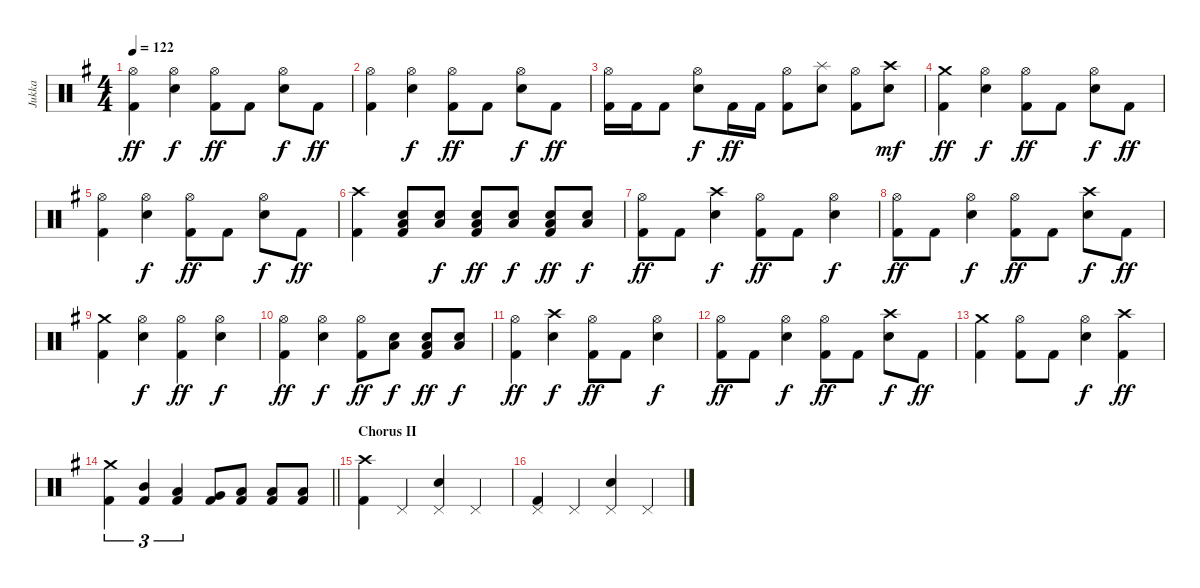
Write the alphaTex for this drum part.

\track ("Jukka" "Jukka") {instrument percussion}
\staff {score}
\articulation defaults
\ts (4 4)
\tempo 122
\clef neutral
\ks g
("Hi-Hat (open)" "Kick (hit) 2").4{dy ff} ("Hi-Hat (open)" "Electric Snare (hit)").4{dy f} ("Hi-Hat (open)" "Kick (hit) 2").8{dy ff} "Kick (hit) 2".8 ("Hi-Hat (open)" "Electric Snare (hit)").8{dy f} "Kick (hit) 2".8{dy ff} |
("Hi-Hat (open)" "Kick (hit) 2").4 ("Hi-Hat (open)" "Electric Snare (hit)").4{dy f} ("Hi-Hat (open)" "Kick (hit) 2").8{dy ff} "Kick (hit) 2".8 ("Hi-Hat (open)" "Electric Snare (hit)").8{dy f} "Kick (hit) 2".8{dy ff} |
("Hi-Hat (open)" "Kick (hit) 2").16 "Kick (hit) 2".16 "Kick (hit) 2".8 ("Hi-Hat (open)" "Electric Snare (hit)").8{dy f} "Kick (hit) 2".16{dy ff} "Kick (hit) 2".16 ("Hi-Hat (open)" "Kick (hit) 2").8 ("Splash (hit)" "Electric Snare (hit)").8 ("Hi-Hat (open)" "Kick (hit) 2").8 ("Crash high (hit)" "Electric Snare (hit)").8{dy mf} |
("Crash medium (hit)" "Kick (hit) 2").4{dy ff} ("Hi-Hat (open)" "Electric Snare (hit)").4{dy f} ("Hi-Hat (open)" "Kick (hit) 2").8{dy ff} "Kick (hit) 2".8 ("Hi-Hat (open)" "Electric Snare (hit)").8{dy f} "Kick (hit) 2".8{dy ff} |
("Hi-Hat (open)" "Kick (hit) 2").4 ("Hi-Hat (open)" "Electric Snare (hit)").4{dy f} ("Hi-Hat (open)" "Kick (hit) 2").8{dy ff} "Kick (hit) 2".8 ("Hi-Hat (open)" "Electric Snare (hit)").8{dy f} "Kick (hit) 2".8{dy ff} |
("Crash high (hit)" "Kick (hit) 2").4 ("Low Floor Tom (hit)" "Electric Snare (hit)" "Kick (hit) 2").8 ("Low Floor Tom (hit)" "Electric Snare (hit)").8{dy f} ("Low Floor Tom (hit)" "Electric Snare (hit)" "Kick (hit) 2").8{dy ff} ("Low Floor Tom (hit)" "Electric Snare (hit)").8{dy f} ("Low Floor Tom (hit)" "Electric Snare (hit)" "Kick (hit) 2").8{dy ff} ("Low Floor Tom (hit)" "Electric Snare (hit)").8{dy f} |
("Hi-Hat (open)" "Kick (hit) 2").8{dy ff} "Kick (hit) 2".8 ("Crash high (hit)" "Electric Snare (hit)").4{dy f} ("Hi-Hat (open)" "Kick (hit) 2").8{dy ff} "Kick (hit) 2".8 ("Hi-Hat (open)" "Electric Snare (hit)").4{dy f} |
("Hi-Hat (open)" "Kick (hit) 2").8{dy ff} "Kick (hit) 2".8 ("Hi-Hat (open)" "Electric Snare (hit)").4{dy f} ("Hi-Hat (open)" "Kick (hit) 2").8{dy ff} "Kick (hit) 2".8 ("Crash high (hit)" "Electric Snare (hit)").8{dy f} "Kick (hit) 2".8{dy ff} |
("Crash medium (hit)" "Kick (hit) 2").4 ("Hi-Hat (open)" "Electric Snare (hit)").4{dy f} ("Hi-Hat (open)" "Kick (hit) 2").4{dy ff} ("Hi-Hat (open)" "Electric Snare (hit)").4{dy f} |
("Hi-Hat (open)" "Kick (hit) 2").4{dy ff} ("Hi-Hat (open)" "Electric Snare (hit)").4{dy f} ("Hi-Hat (open)" "Kick (hit) 2").8{dy ff} ("Low Floor Tom (hit)" "Electric Snare (hit)").8{dy f} ("Low Floor Tom (hit)" "Electric Snare (hit)" "Kick (hit) 2").8{dy ff} ("Low Floor Tom (hit)" "Electric Snare (hit)").8{dy f} |
("Hi-Hat (open)" "Kick (hit) 2").4{dy ff} ("Crash high (hit)" "Electric Snare (hit)").4{dy f} ("Hi-Hat (open)" "Kick (hit) 2").8{dy ff} "Kick (hit) 2".8 ("Hi-Hat (open)" "Electric Snare (hit)").4{dy f} |
("Hi-Hat (open)" "Kick (hit) 2").8{dy ff} "Kick (hit) 2".8 ("Hi-Hat (open)" "Electric Snare (hit)").4{dy f} ("Hi-Hat (open)" "Kick (hit) 2").8{dy ff} "Kick (hit) 2".8 ("Crash high (hit)" "Electric Snare (hit)").8{dy f} "Kick (hit) 2".8{dy ff} |
("Crash medium (hit)" "Kick (hit) 2").4 ("Hi-Hat (open)" "Kick (hit) 2").8 "Kick (hit) 2".8 ("Hi-Hat (open)" "Electric Snare (hit)").4{dy f} ("Crash high (hit)" "Kick (hit) 2").4{dy ff} |
\barLineRight lightlight
("Crash medium (hit)" "Kick (hit) 2").4{tu (3 2)} ("Mid Tom (hit)" "Kick (hit) 2").4{tu (3 2)} ("Low Tom (hit)" "Kick (hit) 2").4{tu (3 2)} ("Very Low Tom (hit)" "Kick (hit) 2").8 ("Low Floor Tom (hit)" "Kick (hit) 2").8 ("Low Floor Tom (hit)" "Kick (hit) 2").8 ("Low Floor Tom (hit)" "Kick (hit) 2").8 |
\section ("" "Chorus II")
("Crash high (hit)" "Kick (hit) 2").4 "Pedal Hi-Hat (hit)".4 ("Pedal Hi-Hat (hit)" "Electric Snare (hit)").4 "Pedal Hi-Hat (hit)".4 |
("Pedal Hi-Hat (hit)" "Kick (hit) 2").4 "Pedal Hi-Hat (hit)".4 ("Pedal Hi-Hat (hit)" "Electric Snare (hit)").4 "Pedal Hi-Hat (hit)".4
